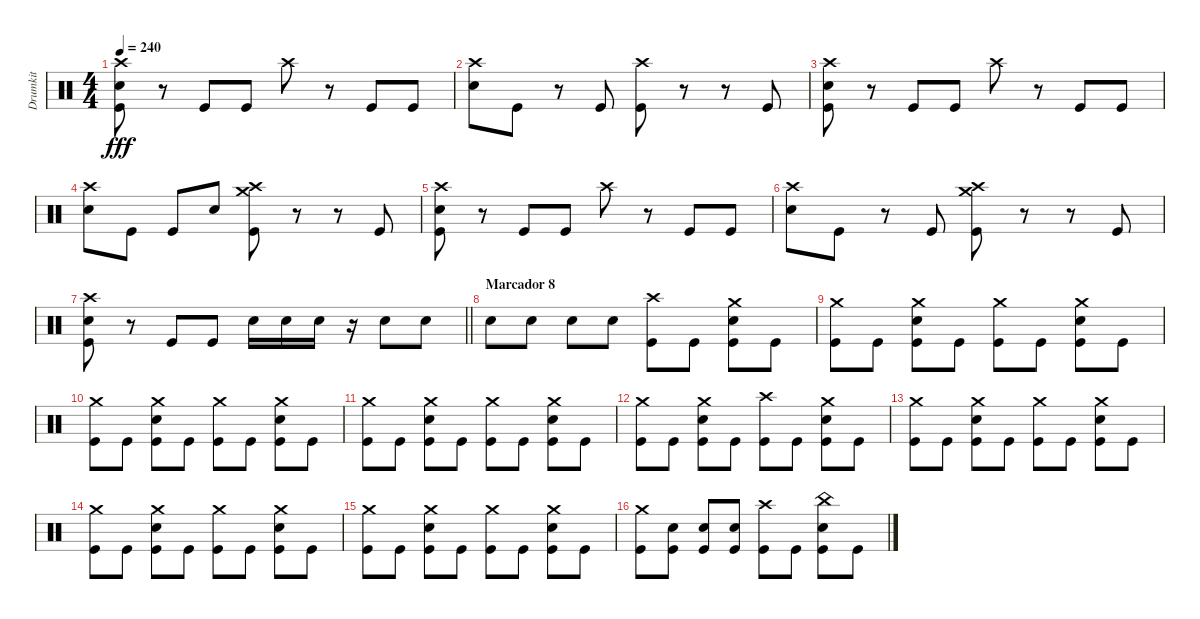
\track ("Drumkit" "Drumkit") {instrument percussion}
\staff {score}
\articulation defaults
\ts (4 4)
\tempo 240
\clef neutral
\ks c
("Crash high (hit)" "Snare (hit) 2" "Kick (hit)").8{dy fff} r.8 "Kick (hit)".8 "Kick (hit)".8 "Crash high (hit)".8 r.8 "Kick (hit)".8 "Kick (hit)".8 |
("Crash high (hit)" "Snare (hit) 2").8 "Kick (hit)".8 r.8 "Kick (hit)".8 ("Crash high (hit)" "Kick (hit)").8 r.8 r.8 "Kick (hit)".8 |
("Crash high (hit)" "Snare (hit) 2" "Kick (hit)").8 r.8 "Kick (hit)".8 "Kick (hit)".8 "Crash high (hit)".8 r.8 "Kick (hit)".8 "Kick (hit)".8 |
("Crash high (hit)" "Snare (hit) 2").8 "Kick (hit)".8 "Kick (hit)".8 "Snare (hit) 2".8 ("Crash high (hit)" "Crash medium (hit)" "Kick (hit)").8 r.8 r.8 "Kick (hit)".8 |
("Crash high (hit)" "Snare (hit) 2" "Kick (hit)").8 r.8 "Kick (hit)".8 "Kick (hit)".8 "Crash high (hit)".8 r.8 "Kick (hit)".8 "Kick (hit)".8 |
("Crash high (hit)" "Snare (hit) 2").8 "Kick (hit)".8 r.8 "Kick (hit)".8 ("Crash high (hit)" "Crash medium (hit)" "Kick (hit)").8 r.8 r.8 "Kick (hit)".8 |
\barLineRight lightlight
("Crash high (hit)" "Snare (hit) 2" "Kick (hit)").8 r.8 "Kick (hit)".8 "Kick (hit)".8 "Snare (hit) 2".16 "Snare (hit) 2".16 "Snare (hit) 2".16 r.16 "Snare (hit) 2".8 "Snare (hit) 2".8 |
\section ("" "Marcador 8")
"Snare (hit) 2".8 "Snare (hit) 2".8 "Snare (hit) 2".8 "Snare (hit) 2".8 ("Crash high (hit)" "Kick (hit)").8 "Kick (hit)".8 ("Crash medium (hit)" "Snare (hit) 2" "Kick (hit)").8 "Kick (hit)".8 |
("Crash medium (hit)" "Kick (hit)").8 "Kick (hit)".8 ("Crash medium (hit)" "Snare (hit) 2" "Kick (hit)").8 "Kick (hit)".8 ("Crash medium (hit)" "Kick (hit)").8 "Kick (hit)".8 ("Crash medium (hit)" "Snare (hit) 2" "Kick (hit)").8 "Kick (hit)".8 |
("Crash medium (hit)" "Kick (hit)").8 "Kick (hit)".8 ("Crash medium (hit)" "Snare (hit) 2" "Kick (hit)").8 "Kick (hit)".8 ("Crash medium (hit)" "Kick (hit)").8 "Kick (hit)".8 ("Crash medium (hit)" "Snare (hit) 2" "Kick (hit)").8 "Kick (hit)".8 |
("Crash medium (hit)" "Kick (hit)").8 "Kick (hit)".8 ("Crash medium (hit)" "Snare (hit) 2" "Kick (hit)").8 "Kick (hit)".8 ("Crash medium (hit)" "Kick (hit)").8 "Kick (hit)".8 ("Crash medium (hit)" "Snare (hit) 2" "Kick (hit)").8 "Kick (hit)".8 |
("Crash medium (hit)" "Kick (hit)").8 "Kick (hit)".8 ("Crash medium (hit)" "Snare (hit) 2" "Kick (hit)").8 "Kick (hit)".8 ("Crash high (hit)" "Kick (hit)").8 "Kick (hit)".8 ("Crash medium (hit)" "Snare (hit) 2" "Kick (hit)").8 "Kick (hit)".8 |
("Crash medium (hit)" "Kick (hit)").8 "Kick (hit)".8 ("Crash medium (hit)" "Snare (hit) 2" "Kick (hit)").8 "Kick (hit)".8 ("Crash medium (hit)" "Kick (hit)").8 "Kick (hit)".8 ("Crash medium (hit)" "Snare (hit) 2" "Kick (hit)").8 "Kick (hit)".8 |
("Crash medium (hit)" "Kick (hit)").8 "Kick (hit)".8 ("Crash medium (hit)" "Snare (hit) 2" "Kick (hit)").8 "Kick (hit)".8 ("Crash medium (hit)" "Kick (hit)").8 "Kick (hit)".8 ("Crash medium (hit)" "Snare (hit) 2" "Kick (hit)").8 "Kick (hit)".8 |
("Crash medium (hit)" "Kick (hit)").8 "Kick (hit)".8 ("Crash medium (hit)" "Snare (hit) 2" "Kick (hit)").8 "Kick (hit)".8 ("Crash medium (hit)" "Kick (hit)").8 "Kick (hit)".8 ("Crash medium (hit)" "Snare (hit) 2" "Kick (hit)").8 "Kick (hit)".8 |
("Crash medium (hit)" "Kick (hit)").8 ("Snare (hit) 2" "Kick (hit)").8 ("Snare (hit) 2" "Kick (hit)").8 ("Snare (hit) 2" "Kick (hit)").8 ("Crash high (hit)" "Kick (hit)").8 "Kick (hit)".8 ("China (hit)" "Snare (hit) 2" "Kick (hit)").8 "Kick (hit)".8
